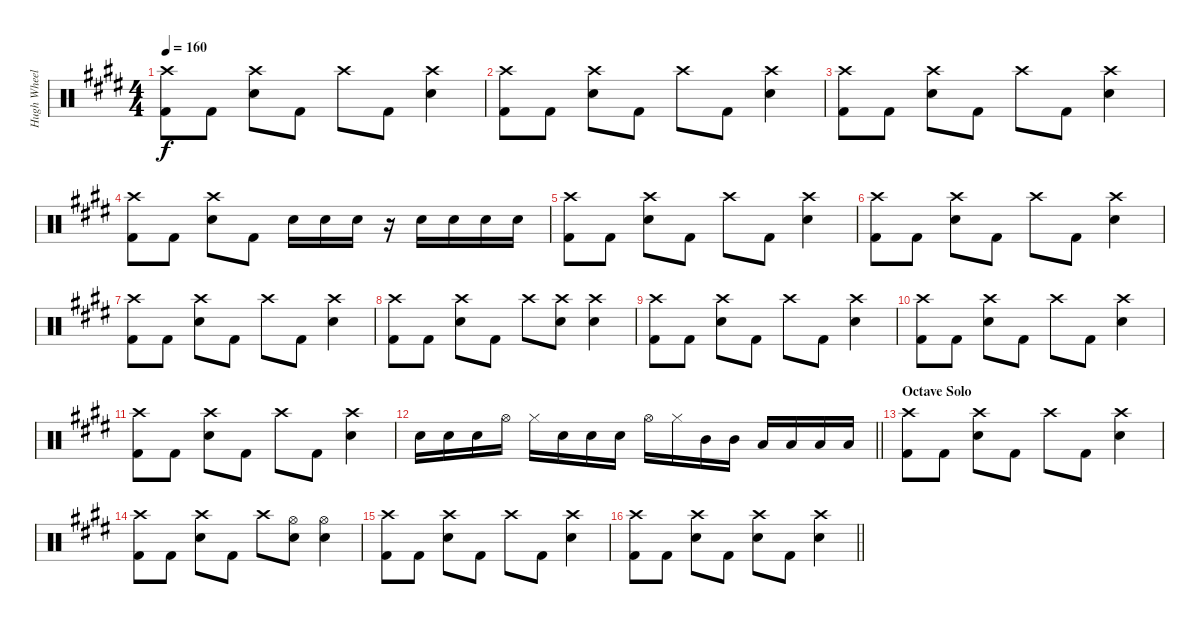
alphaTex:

\track ("Hugh Wheeler - Drums" "Hugh Wheel") {instrument percussion}
\staff {score}
\articulation defaults
\ts (4 4)
\tempo 160
\clef neutral
\ks e
("Crash high (hit)" "Kick (hit) 2").8{dy f} "Kick (hit) 2".8 ("Crash high (hit)" "Electric Snare (hit)").8 "Kick (hit) 2".8 "Crash high (hit)".8 "Kick (hit) 2".8 ("Crash high (hit)" "Electric Snare (hit)").4 |
("Crash high (hit)" "Kick (hit) 2").8 "Kick (hit) 2".8 ("Crash high (hit)" "Electric Snare (hit)").8 "Kick (hit) 2".8 "Crash high (hit)".8 "Kick (hit) 2".8 ("Crash high (hit)" "Electric Snare (hit)").4 |
("Crash high (hit)" "Kick (hit) 2").8 "Kick (hit) 2".8 ("Crash high (hit)" "Electric Snare (hit)").8 "Kick (hit) 2".8 "Crash high (hit)".8 "Kick (hit) 2".8 ("Crash high (hit)" "Electric Snare (hit)").4 |
("Crash high (hit)" "Kick (hit) 2").8 "Kick (hit) 2".8 ("Crash high (hit)" "Electric Snare (hit)").8 "Kick (hit) 2".8 "Electric Snare (hit)".16 "Electric Snare (hit)".16 "Electric Snare (hit)".16 r.16 "Electric Snare (hit)".16 "Electric Snare (hit)".16 "Electric Snare (hit)".16 "Electric Snare (hit)".16 |
("Crash high (hit)" "Kick (hit) 2").8 "Kick (hit) 2".8 ("Crash high (hit)" "Electric Snare (hit)").8 "Kick (hit) 2".8 "Crash high (hit)".8 "Kick (hit) 2".8 ("Crash high (hit)" "Electric Snare (hit)").4 |
("Crash high (hit)" "Kick (hit) 2").8 "Kick (hit) 2".8 ("Crash high (hit)" "Electric Snare (hit)").8 "Kick (hit) 2".8 "Crash high (hit)".8 "Kick (hit) 2".8 ("Crash high (hit)" "Electric Snare (hit)").4 |
("Crash high (hit)" "Kick (hit) 2").8 "Kick (hit) 2".8 ("Crash high (hit)" "Electric Snare (hit)").8 "Kick (hit) 2".8 "Crash high (hit)".8 "Kick (hit) 2".8 ("Crash high (hit)" "Electric Snare (hit)").4 |
("Crash high (hit)" "Kick (hit) 2").8 "Kick (hit) 2".8 ("Crash high (hit)" "Electric Snare (hit)").8 "Kick (hit) 2".8 "Crash high (hit)".8 ("Crash high (hit)" "Electric Snare (hit)").8 ("Crash high (hit)" "Electric Snare (hit)").4 |
("Crash high (hit)" "Kick (hit) 2").8 "Kick (hit) 2".8 ("Crash high (hit)" "Electric Snare (hit)").8 "Kick (hit) 2".8 "Crash high (hit)".8 "Kick (hit) 2".8 ("Crash high (hit)" "Electric Snare (hit)").4 |
("Crash high (hit)" "Kick (hit) 2").8 "Kick (hit) 2".8 ("Crash high (hit)" "Electric Snare (hit)").8 "Kick (hit) 2".8 "Crash high (hit)".8 "Kick (hit) 2".8 ("Crash high (hit)" "Electric Snare (hit)").4 |
("Crash high (hit)" "Kick (hit) 2").8 "Kick (hit) 2".8 ("Crash high (hit)" "Electric Snare (hit)").8 "Kick (hit) 2".8 "Crash high (hit)".8 "Kick (hit) 2".8 ("Crash high (hit)" "Electric Snare (hit)").4 |
\barLineRight lightlight "Electric Snare (hit)".16 "Electric Snare (hit)".16 "Electric Snare (hit)".16 "Hi-Hat (open)".16 "Hi-Hat (closed)".16 "Electric Snare (hit)".16 "Electric Snare (hit)".16 "Electric Snare (hit)".16 "Hi-Hat (open)".16 "Hi-Hat (closed)".16 "Mid Tom (hit)".16 "Mid Tom (hit)".16 "Low Tom (hit)".16 "Low Tom (hit)".16 "Low Tom (hit)".16 "Low Tom (hit)".16
|
\section ("" "Octave Solo")
("Crash high (hit)" "Kick (hit) 2").8 "Kick (hit) 2".8 ("Crash high (hit)" "Electric Snare (hit)").8 "Kick (hit) 2".8 "Crash high (hit)".8 "Kick (hit) 2".8 ("Crash high (hit)" "Electric Snare (hit)").4 |
("Crash high (hit)" "Kick (hit) 2").8 "Kick (hit) 2".8 ("Crash high (hit)" "Electric Snare (hit)").8 "Kick (hit) 2".8 "Crash high (hit)".8 ("Hi-Hat (open)" "Electric Snare (hit)").8 ("Hi-Hat (open)" "Electric Snare (hit)").4 |
("Crash high (hit)" "Kick (hit) 2").8 "Kick (hit) 2".8 ("Crash high (hit)" "Electric Snare (hit)").8 "Kick (hit) 2".8 "Crash high (hit)".8 "Kick (hit) 2".8 ("Crash high (hit)" "Electric Snare (hit)").4 |
\barLineRight lightlight
("Crash high (hit)" "Kick (hit) 2").8 "Kick (hit) 2".8 ("Crash high (hit)" "Electric Snare (hit)").8 "Kick (hit) 2".8 ("Crash high (hit)" "Electric Snare (hit)").8 "Kick (hit) 2".8 ("Crash high (hit)" "Electric Snare (hit)").4
